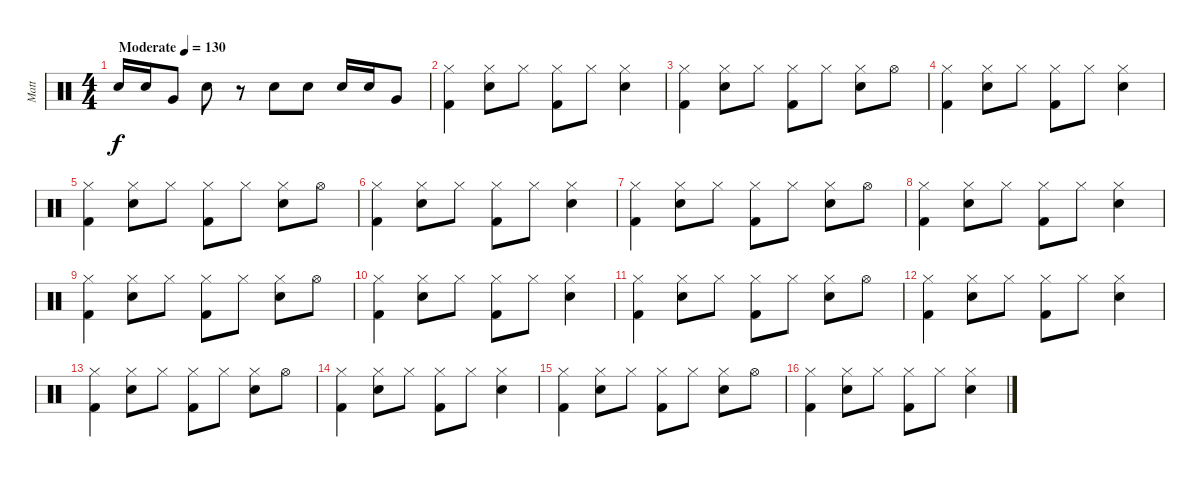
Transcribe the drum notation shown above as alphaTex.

\track ("Matt" "Matt") {instrument percussion}
\staff {score}
\articulation defaults
\ts (4 4)
\tempo (130 "Moderate")
\clef neutral
\ks c "Snare (hit) 2".16{dy f} "Snare (hit) 2".16 "Very Low Tom (hit)".8 "Snare (hit) 2".8
r.8 "Snare (hit) 2".8 "Snare (hit) 2".8 "Snare (hit) 2".16 "Snare (hit) 2".16 "Very Low Tom (hit)".8 |
("Hi-Hat (closed)" "Kick (hit) 2").4 ("Hi-Hat (closed)" "Snare (hit) 2").8 "Hi-Hat (closed)".8 ("Hi-Hat (closed)" "Kick (hit) 2").8 "Hi-Hat (closed)".8 ("Hi-Hat (closed)" "Snare (hit) 2").4 |
("Hi-Hat (closed)" "Kick (hit) 2").4 ("Hi-Hat (closed)" "Snare (hit) 2").8 "Hi-Hat (closed)".8 ("Hi-Hat (closed)" "Kick (hit) 2").8 "Hi-Hat (closed)".8 ("Hi-Hat (closed)" "Snare (hit) 2").8 "Hi-Hat (open)".8 |
("Hi-Hat (closed)" "Kick (hit) 2").4 ("Hi-Hat (closed)" "Snare (hit) 2").8 "Hi-Hat (closed)".8 ("Hi-Hat (closed)" "Kick (hit) 2").8 "Hi-Hat (closed)".8 ("Hi-Hat (closed)" "Snare (hit) 2").4 |
("Hi-Hat (closed)" "Kick (hit) 2").4 ("Hi-Hat (closed)" "Snare (hit) 2").8 "Hi-Hat (closed)".8 ("Hi-Hat (closed)" "Kick (hit) 2").8 "Hi-Hat (closed)".8 ("Hi-Hat (closed)" "Snare (hit) 2").8 "Hi-Hat (open)".8 |
("Hi-Hat (closed)" "Kick (hit) 2").4 ("Hi-Hat (closed)" "Snare (hit) 2").8 "Hi-Hat (closed)".8 ("Hi-Hat (closed)" "Kick (hit) 2").8 "Hi-Hat (closed)".8 ("Hi-Hat (closed)" "Snare (hit) 2").4 |
("Hi-Hat (closed)" "Kick (hit) 2").4 ("Hi-Hat (closed)" "Snare (hit) 2").8 "Hi-Hat (closed)".8 ("Hi-Hat (closed)" "Kick (hit) 2").8 "Hi-Hat (closed)".8 ("Hi-Hat (closed)" "Snare (hit) 2").8 "Hi-Hat (open)".8 |
("Hi-Hat (closed)" "Kick (hit) 2").4 ("Hi-Hat (closed)" "Snare (hit) 2").8 "Hi-Hat (closed)".8 ("Hi-Hat (closed)" "Kick (hit) 2").8 "Hi-Hat (closed)".8 ("Hi-Hat (closed)" "Snare (hit) 2").4 |
("Hi-Hat (closed)" "Kick (hit) 2").4 ("Hi-Hat (closed)" "Snare (hit) 2").8 "Hi-Hat (closed)".8 ("Hi-Hat (closed)" "Kick (hit) 2").8 "Hi-Hat (closed)".8 ("Hi-Hat (closed)" "Snare (hit) 2").8 "Hi-Hat (open)".8 |
("Hi-Hat (closed)" "Kick (hit) 2").4 ("Hi-Hat (closed)" "Snare (hit) 2").8 "Hi-Hat (closed)".8 ("Hi-Hat (closed)" "Kick (hit) 2").8 "Hi-Hat (closed)".8 ("Hi-Hat (closed)" "Snare (hit) 2").4 |
("Hi-Hat (closed)" "Kick (hit) 2").4 ("Hi-Hat (closed)" "Snare (hit) 2").8 "Hi-Hat (closed)".8 ("Hi-Hat (closed)" "Kick (hit) 2").8 "Hi-Hat (closed)".8 ("Hi-Hat (closed)" "Snare (hit) 2").8 "Hi-Hat (open)".8 |
("Hi-Hat (closed)" "Kick (hit) 2").4 ("Hi-Hat (closed)" "Snare (hit) 2").8 "Hi-Hat (closed)".8 ("Hi-Hat (closed)" "Kick (hit) 2").8 "Hi-Hat (closed)".8 ("Hi-Hat (closed)" "Snare (hit) 2").4 |
("Hi-Hat (closed)" "Kick (hit) 2").4 ("Hi-Hat (closed)" "Snare (hit) 2").8 "Hi-Hat (closed)".8 ("Hi-Hat (closed)" "Kick (hit) 2").8 "Hi-Hat (closed)".8 ("Hi-Hat (closed)" "Snare (hit) 2").8 "Hi-Hat (open)".8 |
("Hi-Hat (closed)" "Kick (hit) 2").4 ("Hi-Hat (closed)" "Snare (hit) 2").8 "Hi-Hat (closed)".8 ("Hi-Hat (closed)" "Kick (hit) 2").8 "Hi-Hat (closed)".8 ("Hi-Hat (closed)" "Snare (hit) 2").4 |
("Hi-Hat (closed)" "Kick (hit) 2").4 ("Hi-Hat (closed)" "Snare (hit) 2").8 "Hi-Hat (closed)".8 ("Hi-Hat (closed)" "Kick (hit) 2").8 "Hi-Hat (closed)".8 ("Hi-Hat (closed)" "Snare (hit) 2").8 "Hi-Hat (open)".8 |
("Hi-Hat (closed)" "Kick (hit) 2").4 ("Hi-Hat (closed)" "Snare (hit) 2").8 "Hi-Hat (closed)".8 ("Hi-Hat (closed)" "Kick (hit) 2").8 "Hi-Hat (closed)".8 ("Hi-Hat (closed)" "Snare (hit) 2").4
